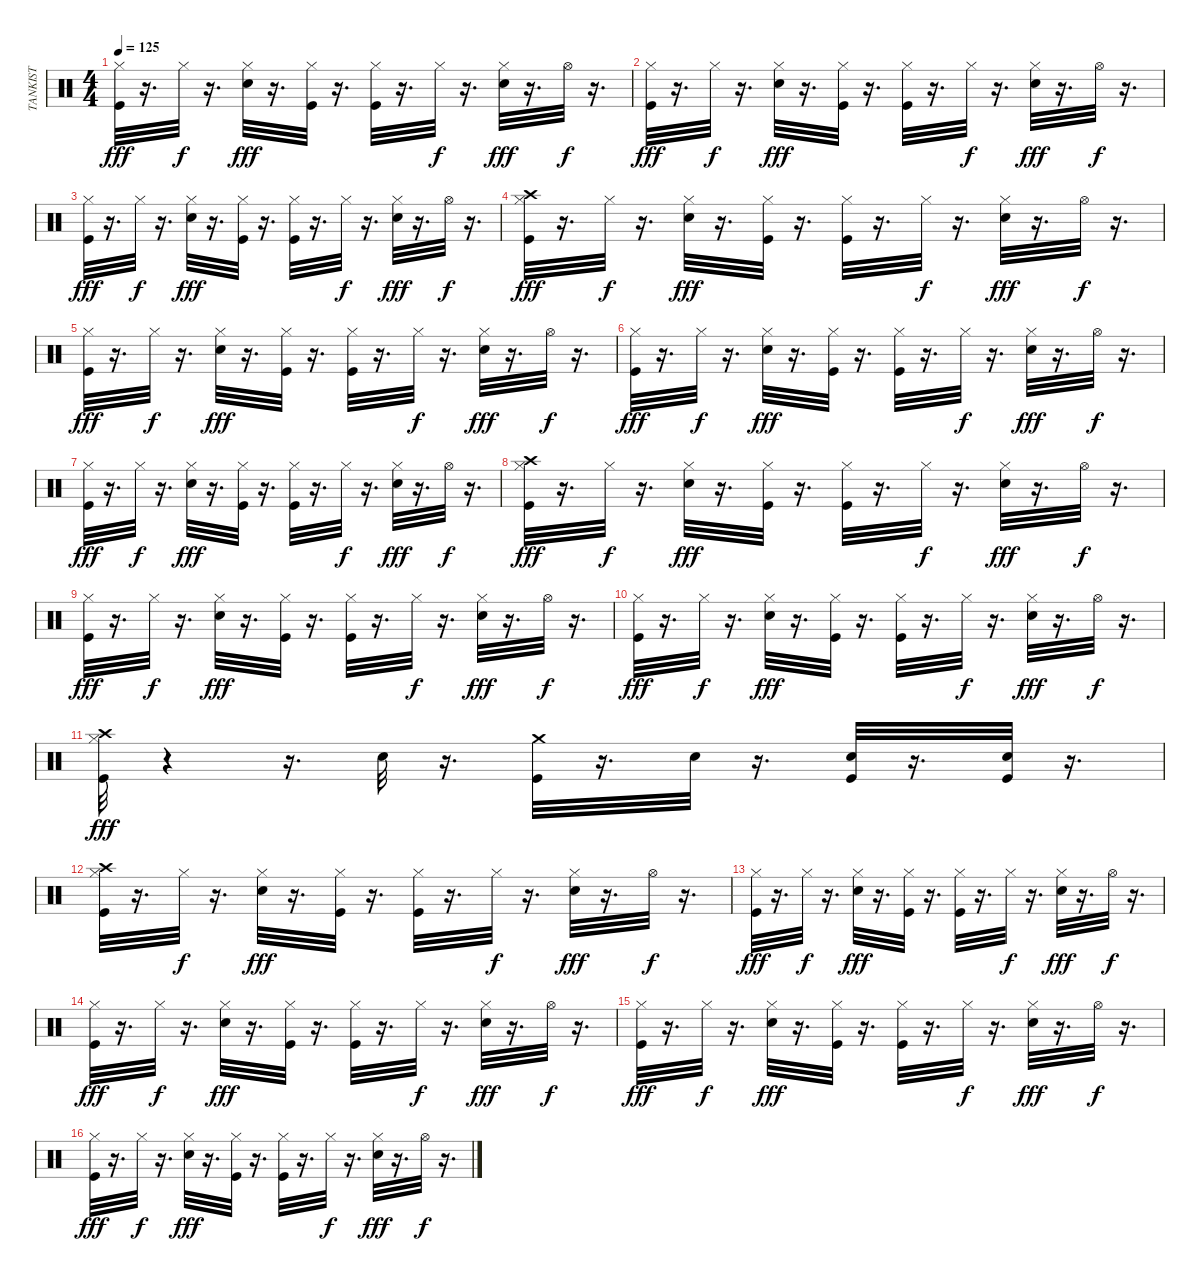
\track ("TANKIST" "TANKIST") {instrument percussion}
\staff {score}
\articulation defaults
\ts (4 4)
\tempo 125
\clef neutral
\ks c
("Kick (hit)" "Hi-Hat (closed)").32{dy fff} r.16{d} "Hi-Hat (closed)".32{dy f} r.16{d} ("Electric Snare (hit)" "Hi-Hat (closed)").32{dy fff} r.16{d} ("Kick (hit)" "Hi-Hat (closed)").32 r.16{d} ("Kick (hit)" "Hi-Hat (closed)").32 r.16{d} "Hi-Hat (closed)".32{dy f} r.16{d} ("Electric Snare (hit)" "Hi-Hat (closed)").32{dy fff} r.16{d} "Hi-Hat (open)".32{dy f} r.16{d} |
("Hi-Hat (closed)" "Kick (hit)").32{dy fff} r.16{d} "Hi-Hat (closed)".32{dy f} r.16{d} ("Hi-Hat (closed)" "Electric Snare (hit)").32{dy fff} r.16{d} ("Hi-Hat (closed)" "Kick (hit)").32 r.16{d} ("Hi-Hat (closed)" "Kick (hit)").32 r.16{d} "Hi-Hat (closed)".32{dy f} r.16{d} ("Hi-Hat (closed)" "Electric Snare (hit)").32{dy fff} r.16{d} "Hi-Hat (open)".32{dy f} r.16{d} |
("Kick (hit)" "Hi-Hat (closed)").32{dy fff} r.16{d} "Hi-Hat (closed)".32{dy f} r.16{d} ("Electric Snare (hit)" "Hi-Hat (closed)").32{dy fff} r.16{d} ("Kick (hit)" "Hi-Hat (closed)").32 r.16{d} ("Kick (hit)" "Hi-Hat (closed)").32 r.16{d} "Hi-Hat (closed)".32{dy f} r.16{d} ("Electric Snare (hit)" "Hi-Hat (closed)").32{dy fff} r.16{d} "Hi-Hat (open)".32{dy f} r.16{d} |
("Crash high (hit)" "Hi-Hat (closed)" "Kick (hit)").32{dy fff} r.16{d} "Hi-Hat (closed)".32{dy f} r.16{d} ("Hi-Hat (closed)" "Electric Snare (hit)").32{dy fff} r.16{d} ("Hi-Hat (closed)" "Kick (hit)").32 r.16{d} ("Hi-Hat (closed)" "Kick (hit)").32 r.16{d} "Hi-Hat (closed)".32{dy f} r.16{d} ("Hi-Hat (closed)" "Electric Snare (hit)").32{dy fff} r.16{d} "Hi-Hat (open)".32{dy f} r.16{d} |
("Kick (hit)" "Hi-Hat (closed)").32{dy fff} r.16{d} "Hi-Hat (closed)".32{dy f} r.16{d} ("Electric Snare (hit)" "Hi-Hat (closed)").32{dy fff} r.16{d} ("Kick (hit)" "Hi-Hat (closed)").32 r.16{d} ("Kick (hit)" "Hi-Hat (closed)").32 r.16{d} "Hi-Hat (closed)".32{dy f} r.16{d} ("Electric Snare (hit)" "Hi-Hat (closed)").32{dy fff} r.16{d} "Hi-Hat (open)".32{dy f} r.16{d} |
("Hi-Hat (closed)" "Kick (hit)").32{dy fff} r.16{d} "Hi-Hat (closed)".32{dy f} r.16{d} ("Hi-Hat (closed)" "Electric Snare (hit)").32{dy fff} r.16{d} ("Hi-Hat (closed)" "Kick (hit)").32 r.16{d} ("Hi-Hat (closed)" "Kick (hit)").32 r.16{d} "Hi-Hat (closed)".32{dy f} r.16{d} ("Hi-Hat (closed)" "Electric Snare (hit)").32{dy fff} r.16{d} "Hi-Hat (open)".32{dy f} r.16{d} |
("Kick (hit)" "Hi-Hat (closed)").32{dy fff} r.16{d} "Hi-Hat (closed)".32{dy f} r.16{d} ("Electric Snare (hit)" "Hi-Hat (closed)").32{dy fff} r.16{d} ("Kick (hit)" "Hi-Hat (closed)").32 r.16{d} ("Kick (hit)" "Hi-Hat (closed)").32 r.16{d} "Hi-Hat (closed)".32{dy f} r.16{d} ("Electric Snare (hit)" "Hi-Hat (closed)").32{dy fff} r.16{d} "Hi-Hat (open)".32{dy f} r.16{d} |
("Crash high (hit)" "Hi-Hat (closed)" "Kick (hit)").32{dy fff} r.16{d} "Hi-Hat (closed)".32{dy f} r.16{d} ("Hi-Hat (closed)" "Electric Snare (hit)").32{dy fff} r.16{d} ("Hi-Hat (closed)" "Kick (hit)").32 r.16{d} ("Hi-Hat (closed)" "Kick (hit)").32 r.16{d} "Hi-Hat (closed)".32{dy f} r.16{d} ("Hi-Hat (closed)" "Electric Snare (hit)").32{dy fff} r.16{d} "Hi-Hat (open)".32{dy f} r.16{d} |
("Kick (hit)" "Hi-Hat (closed)").32{dy fff} r.16{d} "Hi-Hat (closed)".32{dy f} r.16{d} ("Electric Snare (hit)" "Hi-Hat (closed)").32{dy fff} r.16{d} ("Kick (hit)" "Hi-Hat (closed)").32 r.16{d} ("Kick (hit)" "Hi-Hat (closed)").32 r.16{d} "Hi-Hat (closed)".32{dy f} r.16{d} ("Electric Snare (hit)" "Hi-Hat (closed)").32{dy fff} r.16{d} "Hi-Hat (open)".32{dy f} r.16{d} |
("Hi-Hat (closed)" "Kick (hit)").32{dy fff} r.16{d} "Hi-Hat (closed)".32{dy f} r.16{d} ("Hi-Hat (closed)" "Electric Snare (hit)").32{dy fff} r.16{d} ("Hi-Hat (closed)" "Kick (hit)").32 r.16{d} ("Hi-Hat (closed)" "Kick (hit)").32 r.16{d} "Hi-Hat (closed)".32{dy f} r.16{d} ("Hi-Hat (closed)" "Electric Snare (hit)").32{dy fff} r.16{d} "Hi-Hat (open)".32{dy f} r.16{d} |
("Crash high (hit)" "Kick (hit)" "Hi-Hat (closed)").32{dy fff} r.4 r.16{d} "Electric Snare (hit)".32 r.16{d} ("Crash medium (hit)" "Kick (hit)").32 r.16{d} "Electric Snare (hit)".32 r.16{d} ("Electric Snare (hit)" "Kick (hit)").32 r.16{d} ("Kick (hit)" "Electric Snare (hit)").32 r.16{d} |
("Crash high (hit)" "Hi-Hat (closed)" "Kick (hit)").32 r.16{d} "Hi-Hat (closed)".32{dy f} r.16{d} ("Hi-Hat (closed)" "Electric Snare (hit)").32{dy fff} r.16{d} ("Hi-Hat (closed)" "Kick (hit)").32 r.16{d} ("Hi-Hat (closed)" "Kick (hit)").32 r.16{d} "Hi-Hat (closed)".32{dy f} r.16{d} ("Hi-Hat (closed)" "Electric Snare (hit)").32{dy fff} r.16{d} "Hi-Hat (open)".32{dy f} r.16{d} |
("Kick (hit)" "Hi-Hat (closed)").32{dy fff} r.16{d} "Hi-Hat (closed)".32{dy f} r.16{d} ("Electric Snare (hit)" "Hi-Hat (closed)").32{dy fff} r.16{d} ("Kick (hit)" "Hi-Hat (closed)").32 r.16{d} ("Kick (hit)" "Hi-Hat (closed)").32 r.16{d} "Hi-Hat (closed)".32{dy f} r.16{d} ("Electric Snare (hit)" "Hi-Hat (closed)").32{dy fff} r.16{d} "Hi-Hat (open)".32{dy f} r.16{d} |
("Hi-Hat (closed)" "Kick (hit)").32{dy fff} r.16{d} "Hi-Hat (closed)".32{dy f} r.16{d} ("Hi-Hat (closed)" "Electric Snare (hit)").32{dy fff} r.16{d} ("Hi-Hat (closed)" "Kick (hit)").32 r.16{d} ("Hi-Hat (closed)" "Kick (hit)").32 r.16{d} "Hi-Hat (closed)".32{dy f} r.16{d} ("Hi-Hat (closed)" "Electric Snare (hit)").32{dy fff} r.16{d} "Hi-Hat (open)".32{dy f} r.16{d} |
("Kick (hit)" "Hi-Hat (closed)").32{dy fff} r.16{d} "Hi-Hat (closed)".32{dy f} r.16{d} ("Electric Snare (hit)" "Hi-Hat (closed)").32{dy fff} r.16{d} ("Kick (hit)" "Hi-Hat (closed)").32 r.16{d} ("Kick (hit)" "Hi-Hat (closed)").32 r.16{d} "Hi-Hat (closed)".32{dy f} r.16{d} ("Electric Snare (hit)" "Hi-Hat (closed)").32{dy fff} r.16{d} "Hi-Hat (open)".32{dy f} r.16{d} |
("Hi-Hat (closed)" "Kick (hit)").32{dy fff} r.16{d} "Hi-Hat (closed)".32{dy f} r.16{d} ("Hi-Hat (closed)" "Electric Snare (hit)").32{dy fff} r.16{d} ("Hi-Hat (closed)" "Kick (hit)").32 r.16{d} ("Hi-Hat (closed)" "Kick (hit)").32 r.16{d} "Hi-Hat (closed)".32{dy f} r.16{d} ("Hi-Hat (closed)" "Electric Snare (hit)").32{dy fff} r.16{d} "Hi-Hat (open)".32{dy f} r.16{d}
